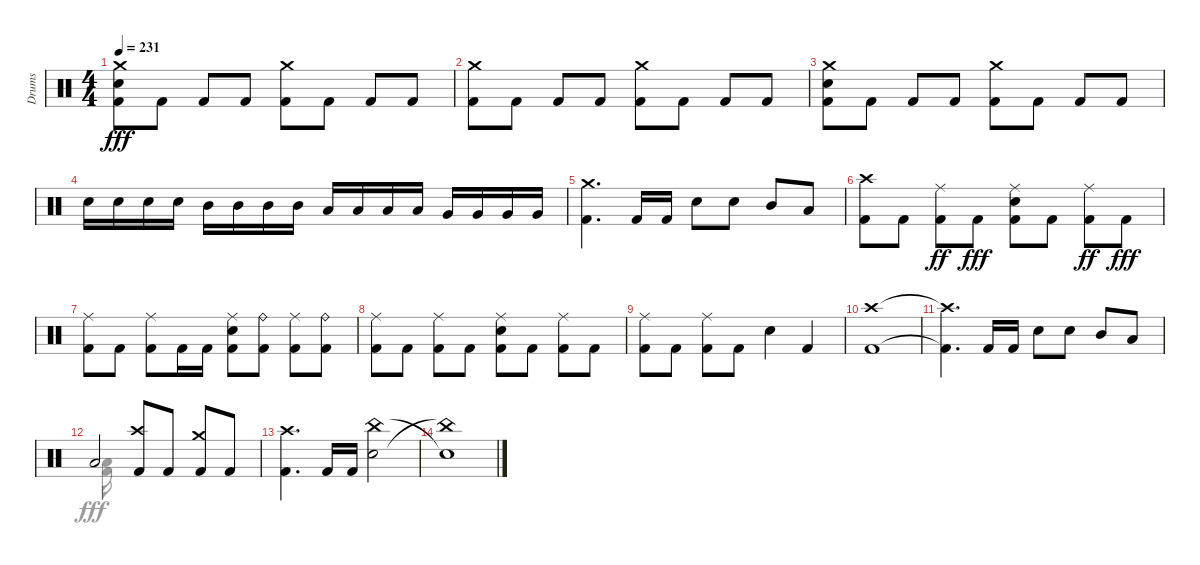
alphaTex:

\track ("Drums" "Drums") {instrument percussion}
\staff {score}
\articulation defaults
\voice
\ts (4 4)
\tempo 231
\clef neutral
\ks aminor
("Kick (hit) 2" "Snare (hit) 2" "Crash medium (hit)").8{dy fff} "Kick (hit) 2".8 "Kick (hit) 2".8 "Kick (hit) 2".8 ("Kick (hit) 2" "Crash medium (hit)").8 "Kick (hit) 2".8 "Kick (hit) 2".8 "Kick (hit) 2".8 |
("Crash medium (hit)" "Kick (hit) 2").8 "Kick (hit) 2".8 "Kick (hit) 2".8 "Kick (hit) 2".8 ("Kick (hit) 2" "Crash medium (hit)").8 "Kick (hit) 2".8 "Kick (hit) 2".8 "Kick (hit) 2".8 |
("Snare (hit) 2" "Crash medium (hit)" "Kick (hit) 2").8 "Kick (hit) 2".8 "Kick (hit) 2".8 "Kick (hit) 2".8 ("Kick (hit) 2" "Crash medium (hit)").8 "Kick (hit) 2".8 "Kick (hit) 2".8 "Kick (hit) 2".8 |
"Snare (hit) 2".16 "Snare (hit) 2".16 "Snare (hit) 2".16 "Snare (hit) 2".16 "Mid Tom (hit)".16 "Mid Tom (hit)".16 "Mid Tom (hit)".16 "Mid Tom (hit)".16 "Low Tom (hit)".16 "Low Tom (hit)".16 "Low Tom (hit)".16 "Low Tom (hit)".16 "Very Low Tom (hit)".16 "Very Low Tom (hit)".16 "Very Low Tom (hit)".16 "Very Low Tom (hit)".16 |
("Kick (hit) 2" "Crash medium (hit)").4{d} "Kick (hit) 2".16 "Kick (hit) 2".16 "Snare (hit) 2".8 "Snare (hit) 2".8 "Mid Tom (hit)".8 "Low Tom (hit)".8 |
("Crash high (hit)" "Kick (hit) 2").8 "Kick (hit) 2".8 ("Ride (middle)" "Kick (hit) 2").8{dy ff} "Kick (hit) 2".8{dy fff} ("Kick (hit) 2" "Ride (middle)" "Snare (hit) 2").8 "Kick (hit) 2".8 ("Ride (middle)" "Kick (hit) 2").8{dy ff} "Kick (hit) 2".8{dy fff} |
("Kick (hit) 2" "Ride (middle)").8 "Kick (hit) 2".8 ("Kick (hit) 2" "Ride (middle)").8 "Kick (hit) 2".16 "Kick (hit) 2".16 ("Kick (hit) 2" "Ride (middle)" "Snare (hit) 2").8 ("Ride (bell)" "Kick (hit) 2").8 ("Ride (middle)" "Kick (hit) 2").8 ("Ride (bell)" "Kick (hit) 2").8 |
("Ride (middle)" "Kick (hit) 2").8 "Kick (hit) 2".8 ("Kick (hit) 2" "Ride (middle)").8 "Kick (hit) 2".8 ("Kick (hit) 2" "Snare (hit) 2" "Ride (middle)").8 "Kick (hit) 2".8 ("Kick (hit) 2" "Ride (middle)").8 "Kick (hit) 2".8 |
("Kick (hit) 2" "Ride (middle)").8 "Kick (hit) 2".8 ("Ride (middle)" "Kick (hit) 2").8 "Kick (hit) 2".8 "Snare (hit) 2".4 "Kick (hit) 2".4 |
("Crash high (hit)" "Kick (hit) 2").1 |
("Crash high (hit)"{t} "Kick (hit) 2"{t}).4{d} "Kick (hit) 2".16 "Kick (hit) 2".16 "Snare (hit) 2".8 "Snare (hit) 2".8 "Mid Tom (hit)".8 "Low Tom (hit)".8 |
"Low Floor Tom (hit)".2 ("Kick (hit) 2" "Crash high (hit)").8 "Kick (hit) 2".8 ("Kick (hit) 2" "Crash medium (hit)").8 "Kick (hit) 2".8 |
("Crash high (hit)" "Kick (hit) 2").4{d} "Kick (hit) 2".16 "Kick (hit) 2".16 ("Snare (hit) 2" "China (hit)").2 |
("China (hit)"{t} "Snare (hit) 2"{t}).1
\voice
\clef neutral
\ottava regular
\simile none
\ks aminor
|
|
|
|
|
|
|
|
|
|
|
("Kick (hit) 2" "Low Floor Tom (hit)").16 |
|
